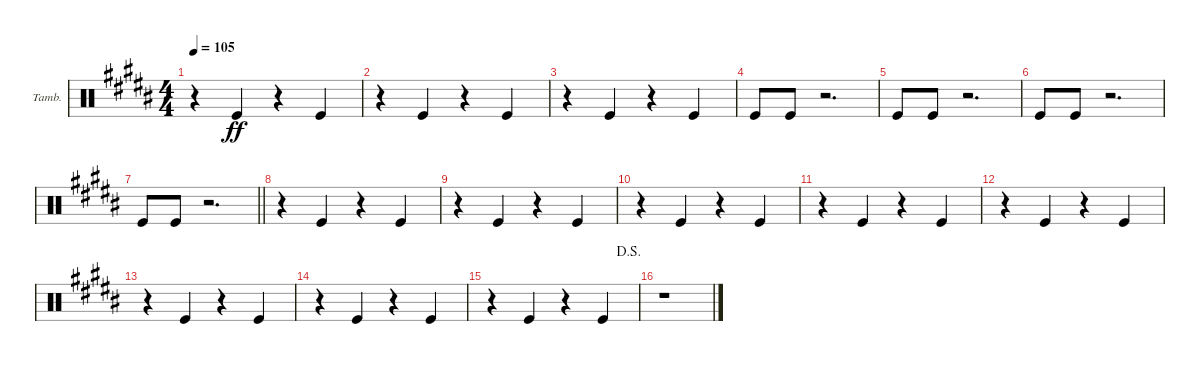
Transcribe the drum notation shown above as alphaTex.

\defaultSystemsLayout 4
\bracketExtendMode groupsimilarinstruments
\firstSystemTrackNameOrientation horizontal
\otherSystemsTrackNameOrientation horizontal
\track ("Tambourine" "Tamb.") {instrument percussion}
\staff {score}
\articulation defaults
\ts (4 4)
\tempo 105
\clef neutral
\scale
0.333333
\ks b
r.4{dy ff} "Kick (hit)".4 r.4 "Kick (hit)".4 |
\scale
0.333333 r.4 "Kick (hit)".4 r.4 "Kick (hit)".4 |
\scale
0.333333 r.4 "Kick (hit)".4 r.4 "Kick (hit)".4 |
\scale
0.333333 "Kick (hit)".8 "Kick (hit)".8 r.2{d} |
\scale
0.333333 "Kick (hit)".8 "Kick (hit)".8 r.2{d} |
\scale
0.333333 "Kick (hit)".8 "Kick (hit)".8 r.2{d} |
\scale
0.333333
\barLineRight lightlight "Kick (hit)".8 "Kick (hit)".8
r.2{d} |
\scale
0.333333 r.4 "Kick (hit)".4 r.4 "Kick (hit)".4 |
\scale
0.333333 r.4 "Kick (hit)".4 r.4 "Kick (hit)".4 |
\scale
0.333333 r.4 "Kick (hit)".4 r.4 "Kick (hit)".4 |
\scale
0.333333 r.4 "Kick (hit)".4 r.4 "Kick (hit)".4 |
\scale
0.333333 r.4 "Kick (hit)".4 r.4 "Kick (hit)".4 |
\scale
0.333333 r.4 "Kick (hit)".4 r.4 "Kick (hit)".4 |
\scale
0.333333 r.4 "Kick (hit)".4 r.4 "Kick (hit)".4 |
\jump dalsegno
\scale
0.333333 r.4 "Kick (hit)".4 r.4 "Kick (hit)".4 |
\scale
0.333333 r.1
